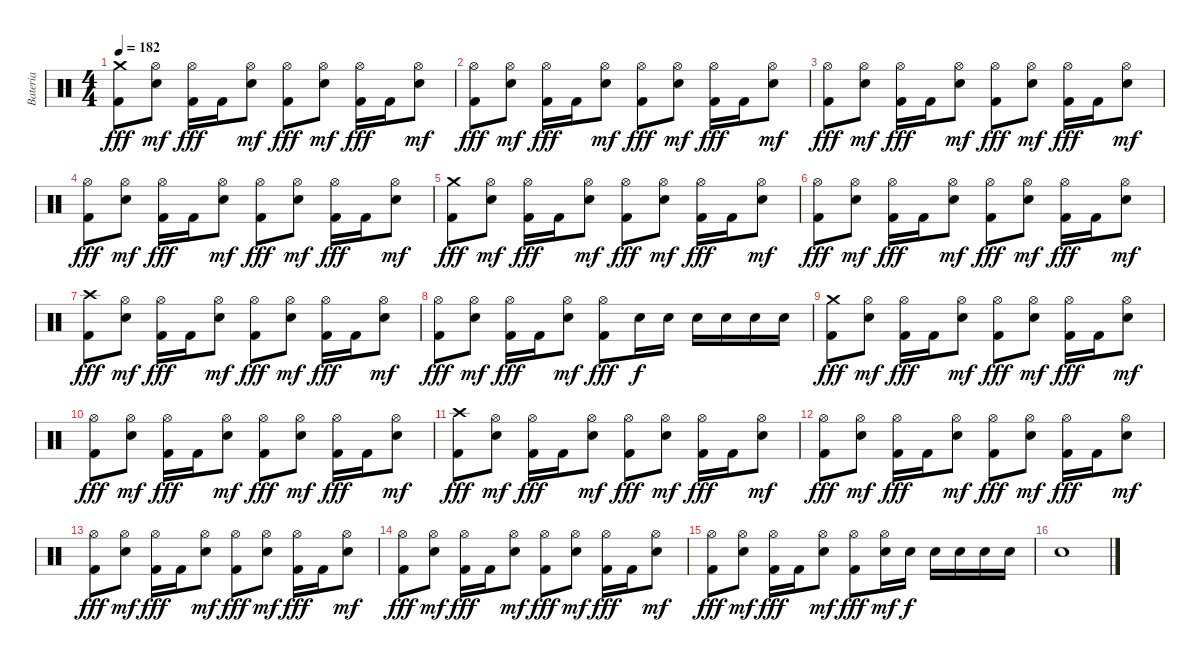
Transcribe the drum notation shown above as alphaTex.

\track ("Bateria" "Bateria") {instrument percussion}
\staff {score}
\articulation defaults
\ts (4 4)
\tempo 182
\clef neutral
\ks c
("Crash medium (hit)" "Kick (hit) 2").8{dy fff} ("Hi-Hat (open)" "Electric Snare (hit)").8{dy mf} ("Hi-Hat (open)" "Kick (hit) 2").16{dy fff} "Kick (hit) 2".16 ("Hi-Hat (open)" "Electric Snare (hit)").8{dy mf} ("Hi-Hat (open)" "Kick (hit) 2").8{dy fff} ("Hi-Hat (open)" "Electric Snare (hit)").8{dy mf} ("Hi-Hat (open)" "Kick (hit) 2").16{dy fff} "Kick (hit) 2".16 ("Hi-Hat (open)" "Electric Snare (hit)").8{dy mf} |
("Hi-Hat (open)" "Kick (hit) 2").8{dy fff} ("Hi-Hat (open)" "Electric Snare (hit)").8{dy mf} ("Hi-Hat (open)" "Kick (hit) 2").16{dy fff} "Kick (hit) 2".16 ("Hi-Hat (open)" "Electric Snare (hit)").8{dy mf} ("Hi-Hat (open)" "Kick (hit) 2").8{dy fff} ("Hi-Hat (open)" "Electric Snare (hit)").8{dy mf} ("Hi-Hat (open)" "Kick (hit) 2").16{dy fff} "Kick (hit) 2".16 ("Hi-Hat (open)" "Electric Snare (hit)").8{dy mf} |
("Hi-Hat (open)" "Kick (hit) 2").8{dy fff} ("Hi-Hat (open)" "Electric Snare (hit)").8{dy mf} ("Hi-Hat (open)" "Kick (hit) 2").16{dy fff} "Kick (hit) 2".16 ("Hi-Hat (open)" "Electric Snare (hit)").8{dy mf} ("Hi-Hat (open)" "Kick (hit) 2").8{dy fff} ("Hi-Hat (open)" "Electric Snare (hit)").8{dy mf} ("Hi-Hat (open)" "Kick (hit) 2").16{dy fff} "Kick (hit) 2".16 ("Hi-Hat (open)" "Electric Snare (hit)").8{dy mf} |
("Hi-Hat (open)" "Kick (hit) 2").8{dy fff} ("Hi-Hat (open)" "Electric Snare (hit)").8{dy mf} ("Hi-Hat (open)" "Kick (hit) 2").16{dy fff} "Kick (hit) 2".16 ("Hi-Hat (open)" "Electric Snare (hit)").8{dy mf} ("Hi-Hat (open)" "Kick (hit) 2").8{dy fff} ("Hi-Hat (open)" "Electric Snare (hit)").8{dy mf} ("Hi-Hat (open)" "Kick (hit) 2").16{dy fff} "Kick (hit) 2".16 ("Hi-Hat (open)" "Electric Snare (hit)").8{dy mf} |
("Crash medium (hit)" "Kick (hit) 2").8{dy fff} ("Hi-Hat (open)" "Electric Snare (hit)").8{dy mf} ("Hi-Hat (open)" "Kick (hit) 2").16{dy fff} "Kick (hit) 2".16 ("Hi-Hat (open)" "Electric Snare (hit)").8{dy mf} ("Hi-Hat (open)" "Kick (hit) 2").8{dy fff} ("Hi-Hat (open)" "Electric Snare (hit)").8{dy mf} ("Hi-Hat (open)" "Kick (hit) 2").16{dy fff} "Kick (hit) 2".16 ("Hi-Hat (open)" "Electric Snare (hit)").8{dy mf} |
("Hi-Hat (open)" "Kick (hit) 2").8{dy fff} ("Hi-Hat (open)" "Electric Snare (hit)").8{dy mf} ("Hi-Hat (open)" "Kick (hit) 2").16{dy fff} "Kick (hit) 2".16 ("Hi-Hat (open)" "Electric Snare (hit)").8{dy mf} ("Hi-Hat (open)" "Kick (hit) 2").8{dy fff} ("Hi-Hat (open)" "Electric Snare (hit)").8{dy mf} ("Hi-Hat (open)" "Kick (hit) 2").16{dy fff} "Kick (hit) 2".16 ("Hi-Hat (open)" "Electric Snare (hit)").8{dy mf} |
("Crash high (hit)" "Kick (hit) 2").8{dy fff} ("Hi-Hat (open)" "Electric Snare (hit)").8{dy mf} ("Hi-Hat (open)" "Kick (hit) 2").16{dy fff} "Kick (hit) 2".16 ("Hi-Hat (open)" "Electric Snare (hit)").8{dy mf} ("Hi-Hat (open)" "Kick (hit) 2").8{dy fff} ("Hi-Hat (open)" "Electric Snare (hit)").8{dy mf} ("Hi-Hat (open)" "Kick (hit) 2").16{dy fff} "Kick (hit) 2".16 ("Hi-Hat (open)" "Electric Snare (hit)").8{dy mf} |
("Hi-Hat (open)" "Kick (hit) 2").8{dy fff} ("Hi-Hat (open)" "Electric Snare (hit)").8{dy mf} ("Hi-Hat (open)" "Kick (hit) 2").16{dy fff} "Kick (hit) 2".16 ("Hi-Hat (open)" "Electric Snare (hit)").8{dy mf} ("Hi-Hat (open)" "Kick (hit) 2").8{dy fff} "Electric Snare (hit)".16{dy f} "Electric Snare (hit)".16 "Electric Snare (hit)".16 "Electric Snare (hit)".16 "Electric Snare (hit)".16 "Electric Snare (hit)".16 |
("Crash medium (hit)" "Kick (hit) 2").8{dy fff} ("Hi-Hat (open)" "Electric Snare (hit)").8{dy mf} ("Hi-Hat (open)" "Kick (hit) 2").16{dy fff} "Kick (hit) 2".16 ("Hi-Hat (open)" "Electric Snare (hit)").8{dy mf} ("Hi-Hat (open)" "Kick (hit) 2").8{dy fff} ("Hi-Hat (open)" "Electric Snare (hit)").8{dy mf} ("Hi-Hat (open)" "Kick (hit) 2").16{dy fff} "Kick (hit) 2".16 ("Hi-Hat (open)" "Electric Snare (hit)").8{dy mf} |
("Hi-Hat (open)" "Kick (hit) 2").8{dy fff} ("Hi-Hat (open)" "Electric Snare (hit)").8{dy mf} ("Hi-Hat (open)" "Kick (hit) 2").16{dy fff} "Kick (hit) 2".16 ("Hi-Hat (open)" "Electric Snare (hit)").8{dy mf} ("Hi-Hat (open)" "Kick (hit) 2").8{dy fff} ("Hi-Hat (open)" "Electric Snare (hit)").8{dy mf} ("Hi-Hat (open)" "Kick (hit) 2").16{dy fff} "Kick (hit) 2".16 ("Hi-Hat (open)" "Electric Snare (hit)").8{dy mf} |
("Crash high (hit)" "Kick (hit) 2").8{dy fff} ("Hi-Hat (open)" "Electric Snare (hit)").8{dy mf} ("Hi-Hat (open)" "Kick (hit) 2").16{dy fff} "Kick (hit) 2".16 ("Hi-Hat (open)" "Electric Snare (hit)").8{dy mf} ("Hi-Hat (open)" "Kick (hit) 2").8{dy fff} ("Hi-Hat (open)" "Electric Snare (hit)").8{dy mf} ("Hi-Hat (open)" "Kick (hit) 2").16{dy fff} "Kick (hit) 2".16 ("Hi-Hat (open)" "Electric Snare (hit)").8{dy mf} |
("Hi-Hat (open)" "Kick (hit) 2").8{dy fff} ("Hi-Hat (open)" "Electric Snare (hit)").8{dy mf} ("Hi-Hat (open)" "Kick (hit) 2").16{dy fff} "Kick (hit) 2".16 ("Hi-Hat (open)" "Electric Snare (hit)").8{dy mf} ("Hi-Hat (open)" "Kick (hit) 2").8{dy fff} ("Hi-Hat (open)" "Electric Snare (hit)").8{dy mf} ("Hi-Hat (open)" "Kick (hit) 2").16{dy fff} "Kick (hit) 2".16 ("Hi-Hat (open)" "Electric Snare (hit)").8{dy mf} |
("Hi-Hat (open)" "Kick (hit) 2").8{dy fff} ("Hi-Hat (open)" "Electric Snare (hit)").8{dy mf} ("Hi-Hat (open)" "Kick (hit) 2").16{dy fff} "Kick (hit) 2".16 ("Hi-Hat (open)" "Electric Snare (hit)").8{dy mf} ("Hi-Hat (open)" "Kick (hit) 2").8{dy fff} ("Hi-Hat (open)" "Electric Snare (hit)").8{dy mf} ("Hi-Hat (open)" "Kick (hit) 2").16{dy fff} "Kick (hit) 2".16 ("Hi-Hat (open)" "Electric Snare (hit)").8{dy mf} |
("Hi-Hat (open)" "Kick (hit) 2").8{dy fff} ("Hi-Hat (open)" "Electric Snare (hit)").8{dy mf} ("Hi-Hat (open)" "Kick (hit) 2").16{dy fff} "Kick (hit) 2".16 ("Hi-Hat (open)" "Electric Snare (hit)").8{dy mf} ("Hi-Hat (open)" "Kick (hit) 2").8{dy fff} ("Hi-Hat (open)" "Electric Snare (hit)").8{dy mf} ("Hi-Hat (open)" "Kick (hit) 2").16{dy fff} "Kick (hit) 2".16 ("Hi-Hat (open)" "Electric Snare (hit)").8{dy mf} |
("Hi-Hat (open)" "Kick (hit) 2").8{dy fff} ("Hi-Hat (open)" "Electric Snare (hit)").8{dy mf} ("Hi-Hat (open)" "Kick (hit) 2").16{dy fff} "Kick (hit) 2".16 ("Hi-Hat (open)" "Electric Snare (hit)").8{dy mf} ("Hi-Hat (open)" "Kick (hit) 2").8{dy fff} ("Hi-Hat (open)" "Electric Snare (hit)").16{dy mf} "Electric Snare (hit)".16{dy f} "Electric Snare (hit)".16 "Electric Snare (hit)".16 "Electric Snare (hit)".16 "Electric Snare (hit)".16 |
"Electric Snare (hit)".1
